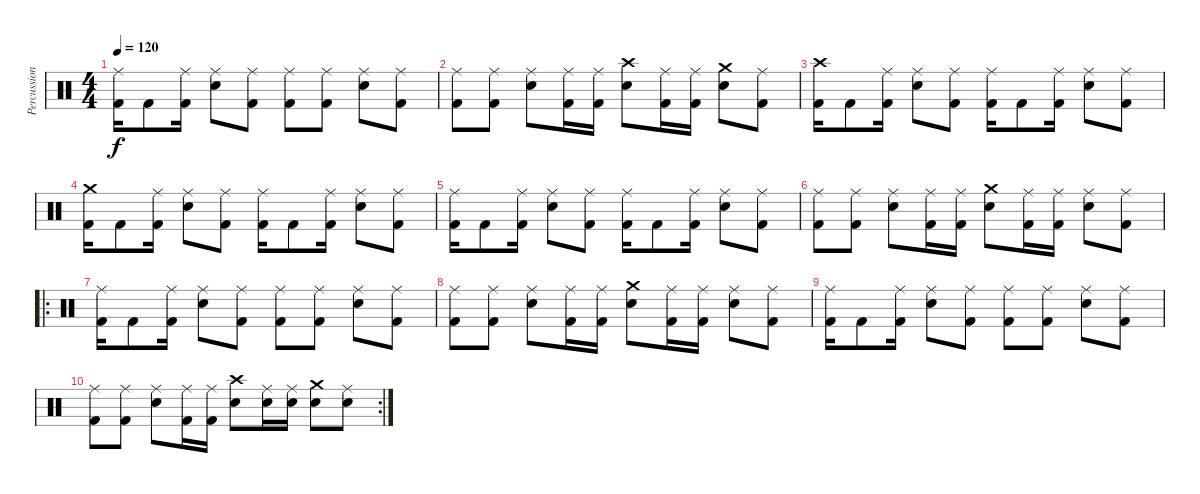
\track ("Percussion" "Percussion") {instrument percussion}
\staff {score}
\articulation defaults
\ts (4 4)
\tempo 120
\clef neutral
\ks c
("Ride (middle)" "Kick (hit) 2").16{dy f} "Kick (hit) 2".8 ("Ride (middle)" "Kick (hit) 2").16 ("Ride (middle)" "Snare (hit) 2").8 ("Ride (middle)" "Kick (hit) 2").8 ("Ride (middle)" "Kick (hit) 2").8 ("Ride (middle)" "Kick (hit) 2").8 ("Ride (middle)" "Snare (hit) 2").8 ("Ride (middle)" "Kick (hit) 2").8 |
("Ride (middle)" "Kick (hit) 2").8 ("Ride (middle)" "Kick (hit) 2").8 ("Ride (middle)" "Snare (hit) 2").8 ("Ride (middle)" "Kick (hit) 2").16 ("Ride (middle)" "Kick (hit) 2").16 ("Crash high (hit)" "Snare (hit) 2").8 ("Ride (middle)" "Kick (hit) 2").16 ("Ride (middle)" "Kick (hit) 2").16 ("Crash medium (hit)" "Snare (hit) 2").8 ("Ride (middle)" "Kick (hit) 2").8 |
("Crash high (hit)" "Kick (hit) 2").16 "Kick (hit) 2".8 ("Ride (middle)" "Kick (hit) 2").16 ("Ride (middle)" "Snare (hit) 2").8 ("Ride (middle)" "Kick (hit) 2").8 ("Ride (middle)" "Kick (hit) 2").16 "Kick (hit) 2".8 ("Ride (middle)" "Kick (hit) 2").16 ("Ride (middle)" "Snare (hit) 2").8 ("Ride (middle)" "Kick (hit) 2").8 |
("Crash medium (hit)" "Kick (hit) 2").16 "Kick (hit) 2".8 ("Ride (middle)" "Kick (hit) 2").16 ("Ride (middle)" "Snare (hit) 2").8 ("Ride (middle)" "Kick (hit) 2").8 ("Ride (middle)" "Kick (hit) 2").16 "Kick (hit) 2".8 ("Ride (middle)" "Kick (hit) 2").16 ("Ride (middle)" "Snare (hit) 2").8 ("Ride (middle)" "Kick (hit) 2").8 |
("Ride (middle)" "Kick (hit) 2").16 "Kick (hit) 2".8 ("Ride (middle)" "Kick (hit) 2").16 ("Ride (middle)" "Snare (hit) 2").8 ("Ride (middle)" "Kick (hit) 2").8 ("Ride (middle)" "Kick (hit) 2").16 "Kick (hit) 2".8 ("Ride (middle)" "Kick (hit) 2").16 ("Ride (middle)" "Snare (hit) 2").8 ("Ride (middle)" "Kick (hit) 2").8 |
("Ride (middle)" "Kick (hit) 2").8 ("Ride (middle)" "Kick (hit) 2").8 ("Ride (middle)" "Snare (hit) 2").8 ("Ride (middle)" "Kick (hit) 2").16 ("Ride (middle)" "Kick (hit) 2").16 ("Crash medium (hit)" "Snare (hit) 2").8 ("Ride (middle)" "Kick (hit) 2").16 ("Ride (middle)" "Kick (hit) 2").16 ("Ride (middle)" "Snare (hit) 2").8 ("Ride (middle)" "Kick (hit) 2").8 |
\ro
("Ride (middle)" "Kick (hit) 2").16 "Kick (hit) 2".8 ("Ride (middle)" "Kick (hit) 2").16 ("Ride (middle)" "Snare (hit) 2").8 ("Ride (middle)" "Kick (hit) 2").8 ("Ride (middle)" "Kick (hit) 2").8 ("Ride (middle)" "Kick (hit) 2").8 ("Ride (middle)" "Snare (hit) 2").8 ("Ride (middle)" "Kick (hit) 2").8 |
("Ride (middle)" "Kick (hit) 2").8 ("Ride (middle)" "Kick (hit) 2").8 ("Ride (middle)" "Snare (hit) 2").8 ("Ride (middle)" "Kick (hit) 2").16 ("Ride (middle)" "Kick (hit) 2").16 ("Crash medium (hit)" "Snare (hit) 2").8 ("Ride (middle)" "Kick (hit) 2").16 ("Ride (middle)" "Kick (hit) 2").16 ("Ride (middle)" "Snare (hit) 2").8 ("Ride (middle)" "Kick (hit) 2").8 |
("Ride (middle)" "Kick (hit) 2").16 "Kick (hit) 2".8 ("Ride (middle)" "Kick (hit) 2").16 ("Ride (middle)" "Snare (hit) 2").8 ("Ride (middle)" "Kick (hit) 2").8 ("Ride (middle)" "Kick (hit) 2").8 ("Ride (middle)" "Kick (hit) 2").8 ("Ride (middle)" "Snare (hit) 2").8 ("Ride (middle)" "Kick (hit) 2").8 |
\rc 2
("Ride (middle)" "Kick (hit) 2").8 ("Ride (middle)" "Kick (hit) 2").8 ("Ride (middle)" "Snare (hit) 2").8 ("Ride (middle)" "Kick (hit) 2").16 ("Ride (middle)" "Kick (hit) 2").16 ("Crash high (hit)" "Snare (hit) 2").8 ("Ride (middle)" "Snare (hit) 2").16 ("Ride (middle)" "Snare (hit) 2").16 ("Crash medium (hit)" "Snare (hit) 2").8 ("Ride (middle)" "Snare (hit) 2").8
